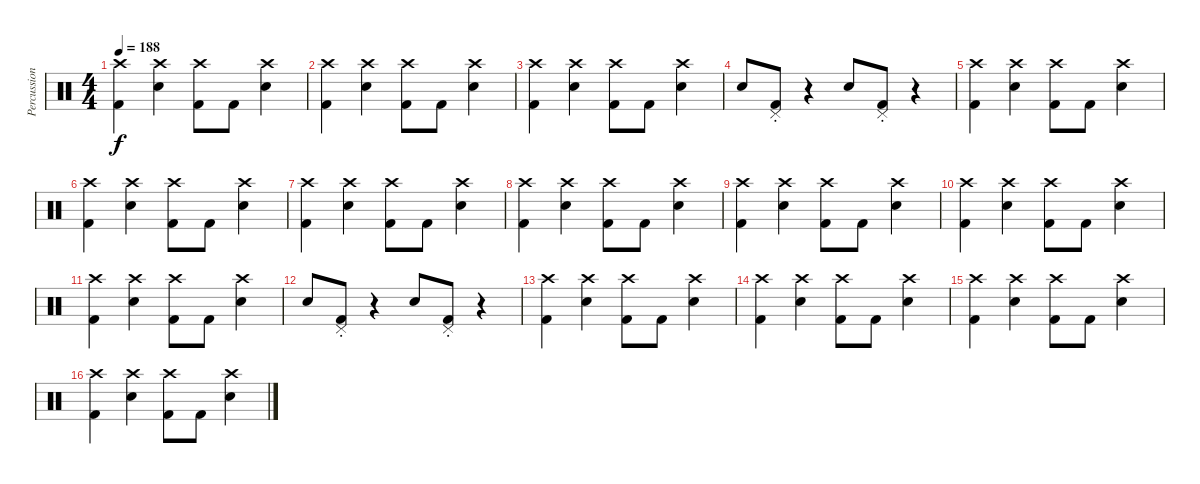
\track ("Percussions" "Percussion") {instrument percussion}
\staff {score}
\articulation defaults
\ts (4 4)
\tempo 188
\clef neutral
\ks c
("Kick (hit) 2" "Crash high (hit)").4{dy f} ("Electric Snare (hit)" "Crash high (hit)").4 ("Kick (hit) 2" "Crash high (hit)").8 "Kick (hit) 2".8 ("Electric Snare (hit)" "Crash high (hit)").4 |
("Kick (hit) 2" "Crash high (hit)").4 ("Electric Snare (hit)" "Crash high (hit)").4 ("Kick (hit) 2" "Crash high (hit)").8 "Kick (hit) 2".8 ("Electric Snare (hit)" "Crash high (hit)").4 |
("Kick (hit) 2" "Crash high (hit)").4 ("Electric Snare (hit)" "Crash high (hit)").4 ("Kick (hit) 2" "Crash high (hit)").8 "Kick (hit) 2".8 ("Electric Snare (hit)" "Crash high (hit)").4 |
"Electric Snare (hit)".8 ("Pedal Hi-Hat (hit)"{st} "Kick (hit) 2").8 r.4 "Electric Snare (hit)".8 ("Pedal Hi-Hat (hit)"{st} "Kick (hit) 2").8 r.4 |
("Kick (hit) 2" "Crash high (hit)").4 ("Electric Snare (hit)" "Crash high (hit)").4 ("Kick (hit) 2" "Crash high (hit)").8 "Kick (hit) 2".8 ("Electric Snare (hit)" "Crash high (hit)").4 |
("Kick (hit) 2" "Crash high (hit)").4 ("Electric Snare (hit)" "Crash high (hit)").4 ("Kick (hit) 2" "Crash high (hit)").8 "Kick (hit) 2".8 ("Electric Snare (hit)" "Crash high (hit)").4 |
("Kick (hit) 2" "Crash high (hit)").4 ("Electric Snare (hit)" "Crash high (hit)").4 ("Kick (hit) 2" "Crash high (hit)").8 "Kick (hit) 2".8 ("Electric Snare (hit)" "Crash high (hit)").4 |
("Kick (hit) 2" "Crash high (hit)").4 ("Electric Snare (hit)" "Crash high (hit)").4 ("Kick (hit) 2" "Crash high (hit)").8 "Kick (hit) 2".8 ("Electric Snare (hit)" "Crash high (hit)").4 |
("Kick (hit) 2" "Crash high (hit)").4 ("Electric Snare (hit)" "Crash high (hit)").4 ("Kick (hit) 2" "Crash high (hit)").8 "Kick (hit) 2".8 ("Electric Snare (hit)" "Crash high (hit)").4 |
("Kick (hit) 2" "Crash high (hit)").4 ("Electric Snare (hit)" "Crash high (hit)").4 ("Kick (hit) 2" "Crash high (hit)").8 "Kick (hit) 2".8 ("Electric Snare (hit)" "Crash high (hit)").4 |
("Kick (hit) 2" "Crash high (hit)").4 ("Electric Snare (hit)" "Crash high (hit)").4 ("Kick (hit) 2" "Crash high (hit)").8 "Kick (hit) 2".8 ("Electric Snare (hit)" "Crash high (hit)").4 |
"Electric Snare (hit)".8 ("Pedal Hi-Hat (hit)"{st} "Kick (hit) 2").8 r.4 "Electric Snare (hit)".8 ("Pedal Hi-Hat (hit)"{st} "Kick (hit) 2").8 r.4 |
("Kick (hit) 2" "Crash high (hit)").4 ("Electric Snare (hit)" "Crash high (hit)").4 ("Kick (hit) 2" "Crash high (hit)").8 "Kick (hit) 2".8 ("Electric Snare (hit)" "Crash high (hit)").4 |
("Kick (hit) 2" "Crash high (hit)").4 ("Electric Snare (hit)" "Crash high (hit)").4 ("Kick (hit) 2" "Crash high (hit)").8 "Kick (hit) 2".8 ("Electric Snare (hit)" "Crash high (hit)").4 |
("Kick (hit) 2" "Crash high (hit)").4 ("Electric Snare (hit)" "Crash high (hit)").4 ("Kick (hit) 2" "Crash high (hit)").8 "Kick (hit) 2".8 ("Electric Snare (hit)" "Crash high (hit)").4 |
("Kick (hit) 2" "Crash high (hit)").4 ("Electric Snare (hit)" "Crash high (hit)").4 ("Kick (hit) 2" "Crash high (hit)").8 "Kick (hit) 2".8 ("Electric Snare (hit)" "Crash high (hit)").4
